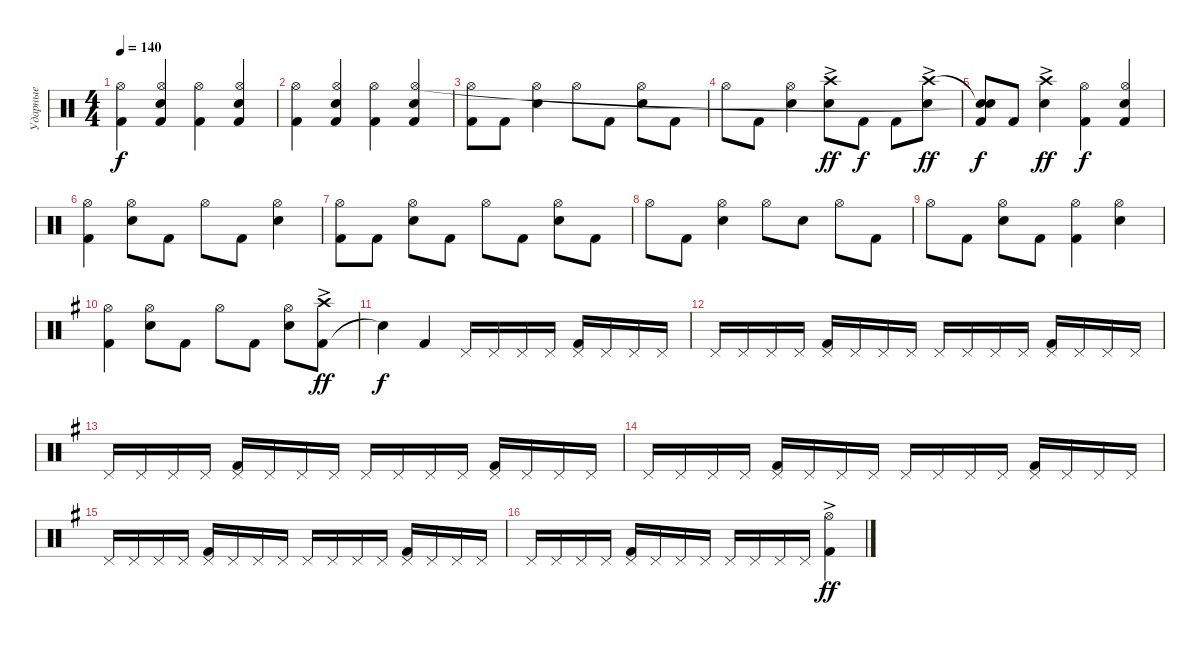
\track ("Ударные" "Ударные") {instrument percussion}
\staff {score}
\articulation defaults
\ts (4 4)
\tempo 140
\clef neutral
\ks c
("Kick (hit) 2" "Hi-Hat (open)").4{dy f} ("Kick (hit) 2" "Snare (hit) 2" "Hi-Hat (open)").4 ("Kick (hit) 2" "Hi-Hat (open)").4 ("Kick (hit) 2" "Snare (hit) 2" "Hi-Hat (open)").4 |
("Kick (hit) 2" "Hi-Hat (open)").4 ("Kick (hit) 2" "Snare (hit) 2" "Hi-Hat (open)").4 ("Kick (hit) 2" "Hi-Hat (open)").4 ("Kick (hit) 2" "Snare (hit) 2" "Hi-Hat (open)").4 |
("Kick (hit) 2" "Hi-Hat (open)").8 "Kick (hit) 2".8 ("Snare (hit) 2" "Hi-Hat (open)").4 "Hi-Hat (open)".8 "Kick (hit) 2".8 ("Snare (hit) 2" "Hi-Hat (open)").8 "Kick (hit) 2".8 |
"Hi-Hat (open)".8 "Kick (hit) 2".8 ("Snare (hit) 2" "Hi-Hat (open)").4 ("Snare (hit) 2" "Crash high (hit)"{ac}).8{dy ff} "Kick (hit) 2".8{dy f} "Kick (hit) 2".8 ("Snare (hit) 2" "Crash high (hit)"{ac}).8{dy ff} |
("Kick (hit) 2" "Snare (hit) 2"{t} "Snare (hit)"{t}).8{dy f} "Kick (hit) 2".8 ("Snare (hit) 2" "Crash high (hit)"{ac}).4{dy ff} ("Kick (hit) 2" "Hi-Hat (open)").4{dy f} ("Kick (hit) 2" "Snare (hit) 2" "Hi-Hat (open)").4 |
("Kick (hit) 2" "Hi-Hat (open)").4 ("Snare (hit) 2" "Hi-Hat (open)").8 "Kick (hit) 2".8 "Hi-Hat (open)".8 "Kick (hit) 2".8 ("Snare (hit) 2" "Hi-Hat (open)").4 |
("Kick (hit) 2" "Hi-Hat (open)").8 "Kick (hit) 2".8 ("Snare (hit) 2" "Hi-Hat (open)").8 "Kick (hit) 2".8 "Hi-Hat (open)".8 "Kick (hit) 2".8 ("Snare (hit) 2" "Hi-Hat (open)").8 "Kick (hit) 2".8 |
"Hi-Hat (open)".8 "Kick (hit) 2".8 ("Snare (hit) 2" "Hi-Hat (open)").4 "Hi-Hat (open)".8 "Snare (hit) 2".8 "Hi-Hat (open)".8 "Kick (hit) 2".8 |
"Hi-Hat (open)".8 "Kick (hit) 2".8 ("Snare (hit) 2" "Hi-Hat (open)").8 "Kick (hit) 2".8 ("Kick (hit) 2" "Hi-Hat (open)").4 ("Snare (hit) 2" "Hi-Hat (open)").4 |
\ks g
("Kick (hit) 2" "Hi-Hat (open)").4 ("Snare (hit) 2" "Hi-Hat (open)").8 "Kick (hit) 2".8 "Hi-Hat (open)".8 "Kick (hit) 2".8 ("Snare (hit) 2" "Hi-Hat (open)").8 ("Kick (hit) 2"{ac} "Crash high (hit)"{ac}).8{dy ff} |
"Snare (hit)"{t}.4{dy f} "Kick (hit) 2".4 "Pedal Hi-Hat (hit)".16 "Pedal Hi-Hat (hit)".16 "Pedal Hi-Hat (hit)".16 "Pedal Hi-Hat (hit)".16 ("Pedal Hi-Hat (hit)" "Kick (hit) 2").16 "Pedal Hi-Hat (hit)".16 "Pedal Hi-Hat (hit)".16 "Pedal Hi-Hat (hit)".16 |
"Pedal Hi-Hat (hit)".16 "Pedal Hi-Hat (hit)".16 "Pedal Hi-Hat (hit)".16 "Pedal Hi-Hat (hit)".16 ("Pedal Hi-Hat (hit)" "Kick (hit) 2").16 "Pedal Hi-Hat (hit)".16 "Pedal Hi-Hat (hit)".16 "Pedal Hi-Hat (hit)".16 "Pedal Hi-Hat (hit)".16 "Pedal Hi-Hat (hit)".16 "Pedal Hi-Hat (hit)".16 "Pedal Hi-Hat (hit)".16 ("Pedal Hi-Hat (hit)" "Kick (hit) 2").16 "Pedal Hi-Hat (hit)".16 "Pedal Hi-Hat (hit)".16 "Pedal Hi-Hat (hit)".16 |
"Pedal Hi-Hat (hit)".16 "Pedal Hi-Hat (hit)".16 "Pedal Hi-Hat (hit)".16 "Pedal Hi-Hat (hit)".16 ("Pedal Hi-Hat (hit)" "Kick (hit) 2").16 "Pedal Hi-Hat (hit)".16 "Pedal Hi-Hat (hit)".16 "Pedal Hi-Hat (hit)".16 "Pedal Hi-Hat (hit)".16 "Pedal Hi-Hat (hit)".16 "Pedal Hi-Hat (hit)".16 "Pedal Hi-Hat (hit)".16 ("Pedal Hi-Hat (hit)" "Kick (hit) 2").16 "Pedal Hi-Hat (hit)".16 "Pedal Hi-Hat (hit)".16 "Pedal Hi-Hat (hit)".16 |
"Pedal Hi-Hat (hit)".16 "Pedal Hi-Hat (hit)".16 "Pedal Hi-Hat (hit)".16 "Pedal Hi-Hat (hit)".16 ("Pedal Hi-Hat (hit)" "Kick (hit) 2").16 "Pedal Hi-Hat (hit)".16 "Pedal Hi-Hat (hit)".16 "Pedal Hi-Hat (hit)".16 "Pedal Hi-Hat (hit)".16 "Pedal Hi-Hat (hit)".16 "Pedal Hi-Hat (hit)".16 "Pedal Hi-Hat (hit)".16 ("Pedal Hi-Hat (hit)" "Kick (hit) 2").16 "Pedal Hi-Hat (hit)".16 "Pedal Hi-Hat (hit)".16 "Pedal Hi-Hat (hit)".16 |
"Pedal Hi-Hat (hit)".16 "Pedal Hi-Hat (hit)".16 "Pedal Hi-Hat (hit)".16 "Pedal Hi-Hat (hit)".16 ("Pedal Hi-Hat (hit)" "Kick (hit) 2").16 "Pedal Hi-Hat (hit)".16 "Pedal Hi-Hat (hit)".16 "Pedal Hi-Hat (hit)".16 "Pedal Hi-Hat (hit)".16 "Pedal Hi-Hat (hit)".16 "Pedal Hi-Hat (hit)".16 "Pedal Hi-Hat (hit)".16 ("Pedal Hi-Hat (hit)" "Kick (hit) 2").16 "Pedal Hi-Hat (hit)".16 "Pedal Hi-Hat (hit)".16 "Pedal Hi-Hat (hit)".16 |
"Pedal Hi-Hat (hit)".16 "Pedal Hi-Hat (hit)".16 "Pedal Hi-Hat (hit)".16 "Pedal Hi-Hat (hit)".16 ("Pedal Hi-Hat (hit)" "Kick (hit) 2").16 "Pedal Hi-Hat (hit)".16 "Pedal Hi-Hat (hit)".16 "Pedal Hi-Hat (hit)".16 "Pedal Hi-Hat (hit)".16 "Pedal Hi-Hat (hit)".16 "Pedal Hi-Hat (hit)".16 "Pedal Hi-Hat (hit)".16 ("Kick (hit) 2"{ac} "Hi-Hat (open)"{ac}).4{dy ff}
